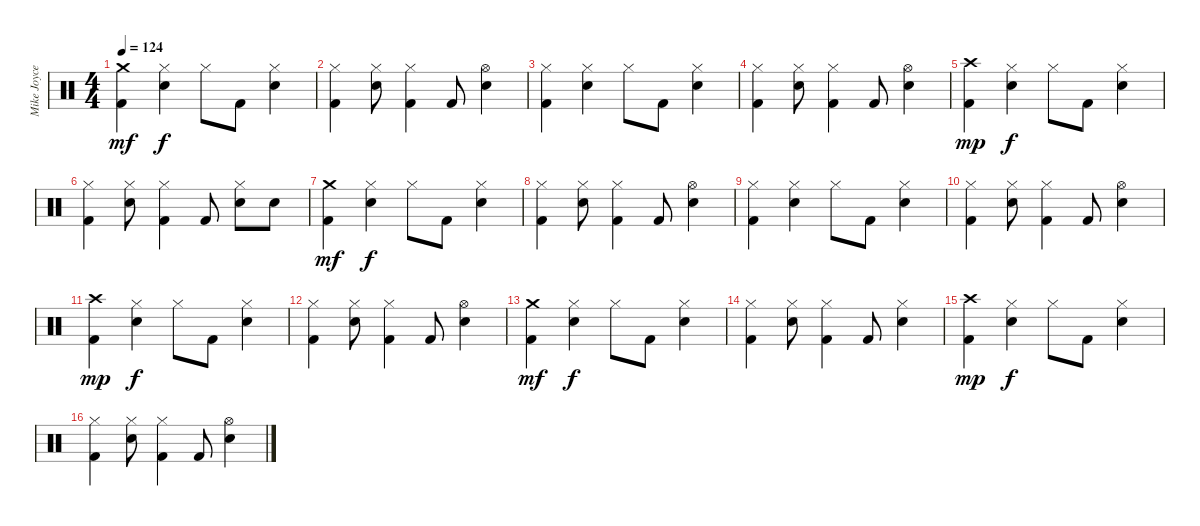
\track ("Mike Joyce" "Mike Joyce") {instrument percussion}
\staff {score}
\articulation defaults
\ts (4 4)
\tempo 124
\clef neutral
\ks c
("Crash medium (hit)" "Kick (hit) 2").4{dy mf} ("Hi-Hat (closed)" "Electric Snare (hit)").4{dy f} "Hi-Hat (closed)".8 "Kick (hit) 2".8 ("Hi-Hat (closed)" "Electric Snare (hit)").4 |
("Hi-Hat (closed)" "Kick (hit) 2").4 ("Hi-Hat (closed)" "Electric Snare (hit)").8 ("Hi-Hat (closed)" "Kick (hit) 2").4 "Kick (hit) 2".8 ("Hi-Hat (open)" "Electric Snare (hit)").4 |
("Hi-Hat (closed)" "Kick (hit) 2").4 ("Hi-Hat (closed)" "Electric Snare (hit)").4 "Hi-Hat (closed)".8 "Kick (hit) 2".8 ("Hi-Hat (closed)" "Electric Snare (hit)").4 |
("Hi-Hat (closed)" "Kick (hit) 2").4 ("Hi-Hat (closed)" "Electric Snare (hit)").8 ("Hi-Hat (closed)" "Kick (hit) 2").4 "Kick (hit) 2".8 ("Hi-Hat (open)" "Electric Snare (hit)").4 |
("Crash high (hit)" "Kick (hit) 2").4{dy mp} ("Hi-Hat (closed)" "Electric Snare (hit)").4{dy f} "Hi-Hat (closed)".8 "Kick (hit) 2".8 ("Hi-Hat (closed)" "Electric Snare (hit)").4 |
("Hi-Hat (closed)" "Kick (hit) 2").4 ("Hi-Hat (closed)" "Electric Snare (hit)").8 ("Hi-Hat (closed)" "Kick (hit) 2").4 "Kick (hit) 2".8 ("Hi-Hat (closed)" "Electric Snare (hit)").8 "Electric Snare (hit)".8 |
("Crash medium (hit)" "Kick (hit) 2").4{dy mf} ("Hi-Hat (closed)" "Electric Snare (hit)").4{dy f} "Hi-Hat (closed)".8 "Kick (hit) 2".8 ("Hi-Hat (closed)" "Electric Snare (hit)").4 |
("Hi-Hat (closed)" "Kick (hit) 2").4 ("Hi-Hat (closed)" "Electric Snare (hit)").8 ("Hi-Hat (closed)" "Kick (hit) 2").4 "Kick (hit) 2".8 ("Hi-Hat (open)" "Electric Snare (hit)").4 |
("Hi-Hat (closed)" "Kick (hit) 2").4 ("Hi-Hat (closed)" "Electric Snare (hit)").4 "Hi-Hat (closed)".8 "Kick (hit) 2".8 ("Hi-Hat (closed)" "Electric Snare (hit)").4 |
("Hi-Hat (closed)" "Kick (hit) 2").4 ("Hi-Hat (closed)" "Electric Snare (hit)").8 ("Hi-Hat (closed)" "Kick (hit) 2").4 "Kick (hit) 2".8 ("Hi-Hat (open)" "Electric Snare (hit)").4 |
("Crash high (hit)" "Kick (hit) 2").4{dy mp} ("Hi-Hat (closed)" "Electric Snare (hit)").4{dy f} "Hi-Hat (closed)".8 "Kick (hit) 2".8 ("Hi-Hat (closed)" "Electric Snare (hit)").4 |
("Hi-Hat (closed)" "Kick (hit) 2").4 ("Hi-Hat (closed)" "Electric Snare (hit)").8 ("Hi-Hat (closed)" "Kick (hit) 2").4 "Kick (hit) 2".8 ("Hi-Hat (open)" "Electric Snare (hit)").4 |
("Crash medium (hit)" "Kick (hit) 2").4{dy mf} ("Hi-Hat (closed)" "Electric Snare (hit)").4{dy f} "Hi-Hat (closed)".8 "Kick (hit) 2".8 ("Hi-Hat (closed)" "Electric Snare (hit)").4 |
("Hi-Hat (closed)" "Kick (hit) 2").4 ("Hi-Hat (closed)" "Electric Snare (hit)").8 ("Hi-Hat (closed)" "Kick (hit) 2").4 "Kick (hit) 2".8 ("Hi-Hat (closed)" "Electric Snare (hit)").4 |
("Crash high (hit)" "Kick (hit) 2").4{dy mp} ("Hi-Hat (closed)" "Electric Snare (hit)").4{dy f} "Hi-Hat (closed)".8 "Kick (hit) 2".8 ("Hi-Hat (closed)" "Electric Snare (hit)").4 |
("Hi-Hat (closed)" "Kick (hit) 2").4 ("Hi-Hat (closed)" "Electric Snare (hit)").8 ("Hi-Hat (closed)" "Kick (hit) 2").4 "Kick (hit) 2".8 ("Hi-Hat (open)" "Electric Snare (hit)").4
